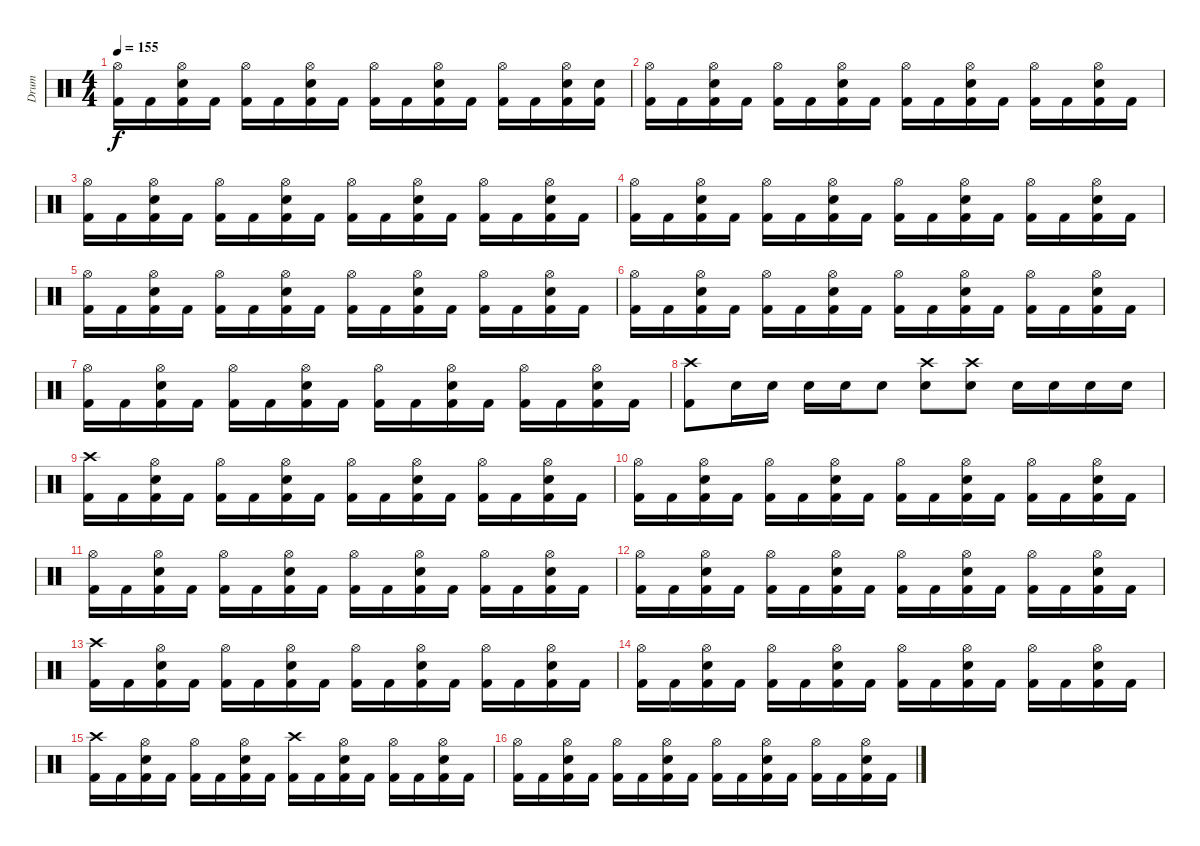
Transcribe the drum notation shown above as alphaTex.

\track ("Drum" "Drum") {instrument percussion}
\staff {score}
\articulation defaults
\ts (4 4)
\tempo 155
\clef neutral
\ks c
("Kick (hit) 2" "Hi-Hat (open)").16{dy f} "Kick (hit) 2".16 ("Kick (hit) 2" "Snare (hit) 2" "Hi-Hat (open)").16 "Kick (hit) 2".16 ("Kick (hit) 2" "Hi-Hat (open)").16 "Kick (hit) 2".16 ("Kick (hit) 2" "Snare (hit) 2" "Hi-Hat (open)").16 "Kick (hit) 2".16 ("Kick (hit) 2" "Hi-Hat (open)").16 "Kick (hit) 2".16 ("Kick (hit) 2" "Snare (hit) 2" "Hi-Hat (open)").16 "Kick (hit) 2".16 ("Kick (hit) 2" "Hi-Hat (open)").16 "Kick (hit) 2".16 ("Kick (hit) 2" "Hi-Hat (open)" "Snare (hit) 2").16 ("Kick (hit) 2" "Snare (hit) 2").16 |
("Kick (hit) 2" "Hi-Hat (open)").16 "Kick (hit) 2".16 ("Kick (hit) 2" "Snare (hit) 2" "Hi-Hat (open)").16 "Kick (hit) 2".16 ("Kick (hit) 2" "Hi-Hat (open)").16 "Kick (hit) 2".16 ("Kick (hit) 2" "Snare (hit) 2" "Hi-Hat (open)").16 "Kick (hit) 2".16 ("Kick (hit) 2" "Hi-Hat (open)").16 "Kick (hit) 2".16 ("Kick (hit) 2" "Snare (hit) 2" "Hi-Hat (open)").16 "Kick (hit) 2".16 ("Kick (hit) 2" "Hi-Hat (open)").16 "Kick (hit) 2".16 ("Kick (hit) 2" "Snare (hit) 2" "Hi-Hat (open)").16 "Kick (hit) 2".16 |
("Kick (hit) 2" "Hi-Hat (open)").16 "Kick (hit) 2".16 ("Kick (hit) 2" "Snare (hit) 2" "Hi-Hat (open)").16 "Kick (hit) 2".16 ("Kick (hit) 2" "Hi-Hat (open)").16 "Kick (hit) 2".16 ("Kick (hit) 2" "Snare (hit) 2" "Hi-Hat (open)").16 "Kick (hit) 2".16 ("Kick (hit) 2" "Hi-Hat (open)").16 "Kick (hit) 2".16 ("Kick (hit) 2" "Snare (hit) 2" "Hi-Hat (open)").16 "Kick (hit) 2".16 ("Kick (hit) 2" "Hi-Hat (open)").16 "Kick (hit) 2".16 ("Kick (hit) 2" "Snare (hit) 2" "Hi-Hat (open)").16 "Kick (hit) 2".16 |
("Kick (hit) 2" "Hi-Hat (open)").16 "Kick (hit) 2".16 ("Kick (hit) 2" "Snare (hit) 2" "Hi-Hat (open)").16 "Kick (hit) 2".16 ("Kick (hit) 2" "Hi-Hat (open)").16 "Kick (hit) 2".16 ("Kick (hit) 2" "Snare (hit) 2" "Hi-Hat (open)").16 "Kick (hit) 2".16 ("Kick (hit) 2" "Hi-Hat (open)").16 "Kick (hit) 2".16 ("Kick (hit) 2" "Snare (hit) 2" "Hi-Hat (open)").16 "Kick (hit) 2".16 ("Kick (hit) 2" "Hi-Hat (open)").16 "Kick (hit) 2".16 ("Kick (hit) 2" "Snare (hit) 2" "Hi-Hat (open)").16 "Kick (hit) 2".16 |
("Kick (hit) 2" "Hi-Hat (open)").16 "Kick (hit) 2".16 ("Kick (hit) 2" "Snare (hit) 2" "Hi-Hat (open)").16 "Kick (hit) 2".16 ("Kick (hit) 2" "Hi-Hat (open)").16 "Kick (hit) 2".16 ("Kick (hit) 2" "Snare (hit) 2" "Hi-Hat (open)").16 "Kick (hit) 2".16 ("Kick (hit) 2" "Hi-Hat (open)").16 "Kick (hit) 2".16 ("Kick (hit) 2" "Snare (hit) 2" "Hi-Hat (open)").16 "Kick (hit) 2".16 ("Kick (hit) 2" "Hi-Hat (open)").16 "Kick (hit) 2".16 ("Kick (hit) 2" "Snare (hit) 2" "Hi-Hat (open)").16 "Kick (hit) 2".16 |
("Kick (hit) 2" "Hi-Hat (open)").16 "Kick (hit) 2".16 ("Kick (hit) 2" "Snare (hit) 2" "Hi-Hat (open)").16 "Kick (hit) 2".16 ("Kick (hit) 2" "Hi-Hat (open)").16 "Kick (hit) 2".16 ("Kick (hit) 2" "Snare (hit) 2" "Hi-Hat (open)").16 "Kick (hit) 2".16 ("Kick (hit) 2" "Hi-Hat (open)").16 "Kick (hit) 2".16 ("Kick (hit) 2" "Snare (hit) 2" "Hi-Hat (open)").16 "Kick (hit) 2".16 ("Kick (hit) 2" "Hi-Hat (open)").16 "Kick (hit) 2".16 ("Kick (hit) 2" "Snare (hit) 2" "Hi-Hat (open)").16 "Kick (hit) 2".16 |
("Kick (hit) 2" "Hi-Hat (open)").16 "Kick (hit) 2".16 ("Kick (hit) 2" "Snare (hit) 2" "Hi-Hat (open)").16 "Kick (hit) 2".16 ("Kick (hit) 2" "Hi-Hat (open)").16 "Kick (hit) 2".16 ("Kick (hit) 2" "Snare (hit) 2" "Hi-Hat (open)").16 "Kick (hit) 2".16 ("Kick (hit) 2" "Hi-Hat (open)").16 "Kick (hit) 2".16 ("Kick (hit) 2" "Snare (hit) 2" "Hi-Hat (open)").16 "Kick (hit) 2".16 ("Kick (hit) 2" "Hi-Hat (open)").16 "Kick (hit) 2".16 ("Kick (hit) 2" "Snare (hit) 2" "Hi-Hat (open)").16 "Kick (hit) 2".16 |
("Kick (hit) 2" "Crash high (hit)").8 "Snare (hit) 2".16 "Snare (hit) 2".16 "Snare (hit) 2".16 "Snare (hit) 2".16 "Snare (hit) 2".8 ("Snare (hit) 2" "Crash high (hit)").8 ("Snare (hit) 2" "Crash high (hit)").8 "Snare (hit) 2".16 "Snare (hit) 2".16 "Snare (hit) 2".16 "Snare (hit) 2".16 |
("Kick (hit) 2" "Crash high (hit)").16 "Kick (hit) 2".16 ("Kick (hit) 2" "Hi-Hat (open)" "Snare (hit) 2").16 "Kick (hit) 2".16 ("Kick (hit) 2" "Hi-Hat (open)").16 "Kick (hit) 2".16 ("Kick (hit) 2" "Hi-Hat (open)" "Snare (hit) 2").16 "Kick (hit) 2".16 ("Kick (hit) 2" "Hi-Hat (open)").16 "Kick (hit) 2".16 ("Kick (hit) 2" "Hi-Hat (open)" "Snare (hit) 2").16 "Kick (hit) 2".16 ("Kick (hit) 2" "Hi-Hat (open)").16 "Kick (hit) 2".16 ("Kick (hit) 2" "Hi-Hat (open)" "Snare (hit) 2").16 "Kick (hit) 2".16 |
("Kick (hit) 2" "Hi-Hat (open)").16 "Kick (hit) 2".16 ("Kick (hit) 2" "Hi-Hat (open)" "Snare (hit) 2").16 "Kick (hit) 2".16 ("Kick (hit) 2" "Hi-Hat (open)").16 "Kick (hit) 2".16 ("Kick (hit) 2" "Hi-Hat (open)" "Snare (hit) 2").16 "Kick (hit) 2".16 ("Kick (hit) 2" "Hi-Hat (open)").16 "Kick (hit) 2".16 ("Kick (hit) 2" "Hi-Hat (open)" "Snare (hit) 2").16 "Kick (hit) 2".16 ("Kick (hit) 2" "Hi-Hat (open)").16 "Kick (hit) 2".16 ("Kick (hit) 2" "Hi-Hat (open)" "Snare (hit) 2").16 "Kick (hit) 2".16 |
("Kick (hit) 2" "Hi-Hat (open)").16 "Kick (hit) 2".16 ("Kick (hit) 2" "Hi-Hat (open)" "Snare (hit) 2").16 "Kick (hit) 2".16 ("Kick (hit) 2" "Hi-Hat (open)").16 "Kick (hit) 2".16 ("Kick (hit) 2" "Hi-Hat (open)" "Snare (hit) 2").16 "Kick (hit) 2".16 ("Kick (hit) 2" "Hi-Hat (open)").16 "Kick (hit) 2".16 ("Kick (hit) 2" "Hi-Hat (open)" "Snare (hit) 2").16 "Kick (hit) 2".16 ("Kick (hit) 2" "Hi-Hat (open)").16 "Kick (hit) 2".16 ("Kick (hit) 2" "Hi-Hat (open)" "Snare (hit) 2").16 "Kick (hit) 2".16 |
("Kick (hit) 2" "Hi-Hat (open)").16 "Kick (hit) 2".16 ("Kick (hit) 2" "Hi-Hat (open)" "Snare (hit) 2").16 "Kick (hit) 2".16 ("Kick (hit) 2" "Hi-Hat (open)").16 "Kick (hit) 2".16 ("Kick (hit) 2" "Hi-Hat (open)" "Snare (hit) 2").16 "Kick (hit) 2".16 ("Kick (hit) 2" "Hi-Hat (open)").16 "Kick (hit) 2".16 ("Kick (hit) 2" "Hi-Hat (open)" "Snare (hit) 2").16 "Kick (hit) 2".16 ("Kick (hit) 2" "Hi-Hat (open)").16 "Kick (hit) 2".16 ("Kick (hit) 2" "Hi-Hat (open)" "Snare (hit) 2").16 "Kick (hit) 2".16 |
("Kick (hit) 2" "Crash high (hit)").16 "Kick (hit) 2".16 ("Kick (hit) 2" "Hi-Hat (open)" "Snare (hit) 2").16 "Kick (hit) 2".16 ("Kick (hit) 2" "Hi-Hat (open)").16 "Kick (hit) 2".16 ("Kick (hit) 2" "Hi-Hat (open)" "Snare (hit) 2").16 "Kick (hit) 2".16 ("Kick (hit) 2" "Hi-Hat (open)").16 "Kick (hit) 2".16 ("Kick (hit) 2" "Hi-Hat (open)" "Snare (hit) 2").16 "Kick (hit) 2".16 ("Kick (hit) 2" "Hi-Hat (open)").16 "Kick (hit) 2".16 ("Kick (hit) 2" "Hi-Hat (open)" "Snare (hit) 2").16 "Kick (hit) 2".16 |
("Kick (hit) 2" "Hi-Hat (open)").16 "Kick (hit) 2".16 ("Kick (hit) 2" "Hi-Hat (open)" "Snare (hit) 2").16 "Kick (hit) 2".16 ("Kick (hit) 2" "Hi-Hat (open)").16 "Kick (hit) 2".16 ("Kick (hit) 2" "Hi-Hat (open)" "Snare (hit) 2").16 "Kick (hit) 2".16 ("Kick (hit) 2" "Hi-Hat (open)").16 "Kick (hit) 2".16 ("Kick (hit) 2" "Hi-Hat (open)" "Snare (hit) 2").16 "Kick (hit) 2".16 ("Kick (hit) 2" "Hi-Hat (open)").16 "Kick (hit) 2".16 ("Kick (hit) 2" "Hi-Hat (open)" "Snare (hit) 2").16 "Kick (hit) 2".16 |
("Kick (hit) 2" "Crash high (hit)").16 "Kick (hit) 2".16 ("Kick (hit) 2" "Hi-Hat (open)" "Snare (hit) 2").16 "Kick (hit) 2".16 ("Kick (hit) 2" "Hi-Hat (open)").16 "Kick (hit) 2".16 ("Kick (hit) 2" "Hi-Hat (open)" "Snare (hit) 2").16 "Kick (hit) 2".16 ("Kick (hit) 2" "Crash high (hit)").16 "Kick (hit) 2".16 ("Kick (hit) 2" "Hi-Hat (open)" "Snare (hit) 2").16 "Kick (hit) 2".16 ("Kick (hit) 2" "Hi-Hat (open)").16 "Kick (hit) 2".16 ("Kick (hit) 2" "Hi-Hat (open)" "Snare (hit) 2").16 "Kick (hit) 2".16 |
("Kick (hit) 2" "Hi-Hat (open)").16 "Kick (hit) 2".16 ("Kick (hit) 2" "Hi-Hat (open)" "Snare (hit) 2").16 "Kick (hit) 2".16 ("Kick (hit) 2" "Hi-Hat (open)").16 "Kick (hit) 2".16 ("Kick (hit) 2" "Hi-Hat (open)" "Snare (hit) 2").16 "Kick (hit) 2".16 ("Kick (hit) 2" "Hi-Hat (open)").16 "Kick (hit) 2".16 ("Kick (hit) 2" "Hi-Hat (open)" "Snare (hit) 2").16 "Kick (hit) 2".16 ("Kick (hit) 2" "Hi-Hat (open)").16 "Kick (hit) 2".16 ("Kick (hit) 2" "Hi-Hat (open)" "Snare (hit) 2").16 "Kick (hit) 2".16
